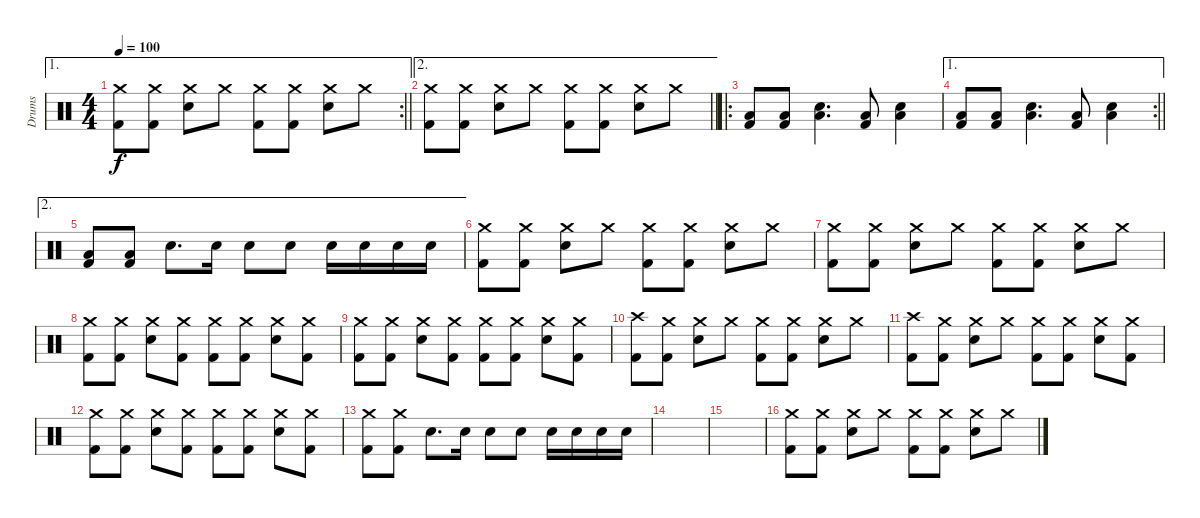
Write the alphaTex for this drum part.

\track ("Drums" "Drums") {instrument percussion}
\staff {score}
\articulation defaults
\ae 1
\rc 2
\ts (4 4)
\tempo 100
\clef neutral
\barLineRight lightlight
\ks c
("Crash medium (hit)" "Kick (hit) 2").8{dy f} ("Crash medium (hit)" "Kick (hit) 2").8 ("Crash medium (hit)" "Electric Snare (hit)").8 "Crash medium (hit)".8 ("Crash medium (hit)" "Kick (hit) 2").8 ("Crash medium (hit)" "Kick (hit) 2").8 ("Crash medium (hit)" "Electric Snare (hit)").8 "Crash medium (hit)".8 |
\ae 2
\barLineRight lightlight
("Crash medium (hit)" "Kick (hit) 2").8 ("Crash medium (hit)" "Kick (hit) 2").8 ("Crash medium (hit)" "Electric Snare (hit)").8 "Crash medium (hit)".8 ("Crash medium (hit)" "Kick (hit) 2").8 ("Crash medium (hit)" "Kick (hit) 2").8 ("Crash medium (hit)" "Electric Snare (hit)").8 "Crash medium (hit)".8 |
\ro
("Low Floor Tom (hit)" "Kick (hit) 2").8 ("Low Floor Tom (hit)" "Kick (hit) 2").8 ("Low Floor Tom (hit)" "Electric Snare (hit)").4{d} ("Low Floor Tom (hit)" "Kick (hit) 2").8 ("Low Floor Tom (hit)" "Electric Snare (hit)").4 |
\ae 1
\rc 2
\barLineRight lightlight
("Low Floor Tom (hit)" "Kick (hit) 2").8 ("Low Floor Tom (hit)" "Kick (hit) 2").8 ("Low Floor Tom (hit)" "Electric Snare (hit)").4{d} ("Low Floor Tom (hit)" "Kick (hit) 2").8 ("Low Floor Tom (hit)" "Electric Snare (hit)").4 |
\ae 2
("Low Floor Tom (hit)" "Kick (hit) 2").8 ("Low Floor Tom (hit)" "Kick (hit) 2").8 "Electric Snare (hit)".8{d} "Electric Snare (hit)".16 "Electric Snare (hit)".8 "Electric Snare (hit)".8 "Electric Snare (hit)".16 "Electric Snare (hit)".16 "Electric Snare (hit)".16 "Electric Snare (hit)".16 |
("Crash medium (hit)" "Kick (hit) 2").8 ("Crash medium (hit)" "Kick (hit) 2").8 ("Crash medium (hit)" "Electric Snare (hit)").8 "Crash medium (hit)".8 ("Crash medium (hit)" "Kick (hit) 2").8 ("Crash medium (hit)" "Kick (hit) 2").8 ("Crash medium (hit)" "Electric Snare (hit)").8 "Crash medium (hit)".8 |
("Crash medium (hit)" "Kick (hit) 2").8 ("Crash medium (hit)" "Kick (hit) 2").8 ("Crash medium (hit)" "Electric Snare (hit)").8 "Crash medium (hit)".8 ("Crash medium (hit)" "Kick (hit) 2").8 ("Crash medium (hit)" "Kick (hit) 2").8 ("Crash medium (hit)" "Electric Snare (hit)").8 "Crash medium (hit)".8 |
("Crash medium (hit)" "Kick (hit) 2").8 ("Crash medium (hit)" "Kick (hit) 2").8 ("Crash medium (hit)" "Electric Snare (hit)").8 ("Crash medium (hit)" "Kick (hit) 2").8 ("Crash medium (hit)" "Kick (hit) 2").8 ("Crash medium (hit)" "Kick (hit) 2").8 ("Crash medium (hit)" "Electric Snare (hit)").8 ("Crash medium (hit)" "Kick (hit) 2").8 |
("Crash medium (hit)" "Kick (hit) 2").8 ("Crash medium (hit)" "Kick (hit) 2").8 ("Crash medium (hit)" "Electric Snare (hit)").8 ("Crash medium (hit)" "Kick (hit) 2").8 ("Crash medium (hit)" "Kick (hit) 2").8 ("Crash medium (hit)" "Kick (hit) 2").8 ("Crash medium (hit)" "Electric Snare (hit)").8 ("Crash medium (hit)" "Kick (hit) 2").8 |
("Crash high (hit)" "Kick (hit) 2").8 ("Crash medium (hit)" "Kick (hit) 2").8 ("Crash medium (hit)" "Electric Snare (hit)").8 "Crash medium (hit)".8 ("Crash medium (hit)" "Kick (hit) 2").8 ("Crash medium (hit)" "Kick (hit) 2").8 ("Crash medium (hit)" "Electric Snare (hit)").8 "Crash medium (hit)".8 |
("Crash high (hit)" "Kick (hit) 2").8 ("Crash medium (hit)" "Kick (hit) 2").8 ("Crash medium (hit)" "Electric Snare (hit)").8 "Crash medium (hit)".8 ("Crash medium (hit)" "Kick (hit) 2").8 ("Crash medium (hit)" "Kick (hit) 2").8 ("Crash medium (hit)" "Electric Snare (hit)").8 ("Crash medium (hit)" "Kick (hit) 2").8 |
("Crash medium (hit)" "Kick (hit) 2").8 ("Crash medium (hit)" "Kick (hit) 2").8 ("Crash medium (hit)" "Electric Snare (hit)").8 ("Crash medium (hit)" "Kick (hit) 2").8 ("Crash medium (hit)" "Kick (hit) 2").8 ("Crash medium (hit)" "Kick (hit) 2").8 ("Crash medium (hit)" "Electric Snare (hit)").8 ("Crash medium (hit)" "Kick (hit) 2").8 |
("Crash medium (hit)" "Kick (hit) 2").8 ("Crash medium (hit)" "Kick (hit) 2").8 "Electric Snare (hit)".8{d} "Electric Snare (hit)".16 "Electric Snare (hit)".8 "Electric Snare (hit)".8 "Electric Snare (hit)".16 "Electric Snare (hit)".16 "Electric Snare (hit)".16 "Electric Snare (hit)".16 |
|
|
("Crash medium (hit)" "Kick (hit) 2").8 ("Crash medium (hit)" "Kick (hit) 2").8 ("Crash medium (hit)" "Electric Snare (hit)").8 "Crash medium (hit)".8 ("Crash medium (hit)" "Kick (hit) 2").8 ("Crash medium (hit)" "Kick (hit) 2").8 ("Crash medium (hit)" "Electric Snare (hit)").8 "Crash medium (hit)".8
